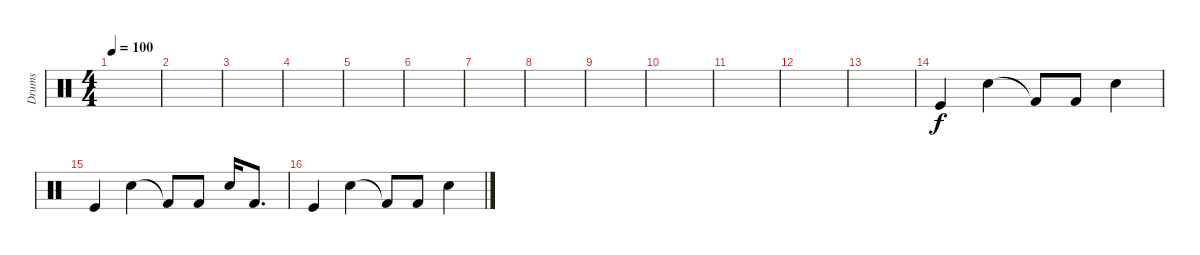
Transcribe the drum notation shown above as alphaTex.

\track ("Drums" "Drums") {instrument percussion}
\staff {score}
\articulation defaults
\ts (4 4)
\tempo 100
\clef neutral
\ks c
|
|
|
|
|
|
|
|
|
|
|
|
|
"Kick (hit)".4 "Snare (hit) 2".4 "Kick (hit) 2"{t}.8 "Kick (hit) 2".8 "Snare (hit) 2".4 |
"Kick (hit)".4 "Snare (hit) 2".4 "Kick (hit) 2"{t}.8 "Kick (hit) 2".8 "Snare (hit) 2".16 "Kick (hit) 2".8{d} |
"Kick (hit)".4 "Snare (hit) 2".4 "Kick (hit) 2"{t}.8 "Kick (hit) 2".8 "Snare (hit) 2".4
